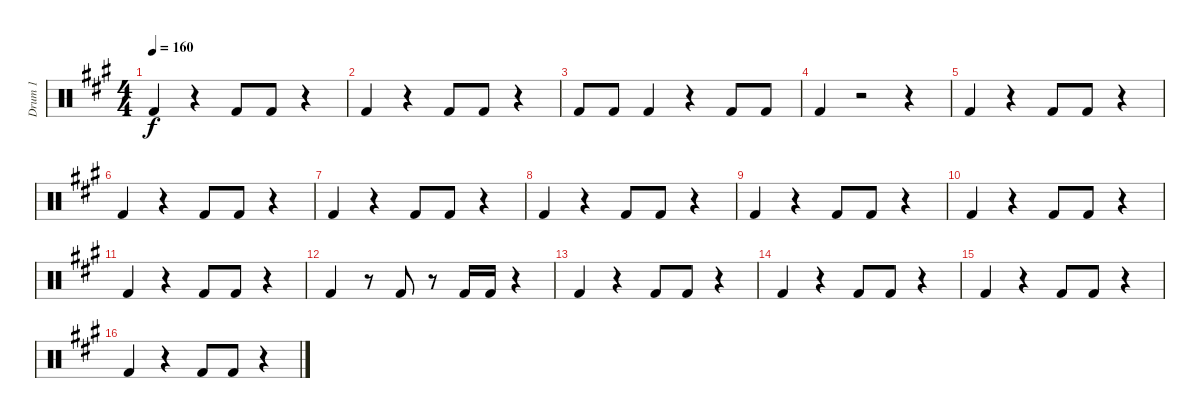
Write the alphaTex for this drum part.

\track ("Drum 1" "Drum 1") {instrument percussion}
\staff {score}
\articulation defaults
\ts (4 4)
\tempo 160
\clef neutral
\ks a "Kick (hit) 2".4{dy f}
r.4 "Kick (hit) 2".8 "Kick (hit) 2".8 r.4 |
"Kick (hit) 2".4 r.4 "Kick (hit) 2".8 "Kick (hit) 2".8 r.4 |
"Kick (hit) 2".8 "Kick (hit) 2".8 "Kick (hit) 2".4 r.4 "Kick (hit) 2".8 "Kick (hit) 2".8 |
"Kick (hit) 2".4 r.2 r.4 |
"Kick (hit) 2".4 r.4 "Kick (hit) 2".8 "Kick (hit) 2".8 r.4 |
"Kick (hit) 2".4 r.4 "Kick (hit) 2".8 "Kick (hit) 2".8 r.4 |
"Kick (hit) 2".4 r.4 "Kick (hit) 2".8 "Kick (hit) 2".8 r.4 |
"Kick (hit) 2".4 r.4 "Kick (hit) 2".8 "Kick (hit) 2".8 r.4 |
"Kick (hit) 2".4 r.4 "Kick (hit) 2".8 "Kick (hit) 2".8 r.4 |
"Kick (hit) 2".4 r.4 "Kick (hit) 2".8 "Kick (hit) 2".8 r.4 |
"Kick (hit) 2".4 r.4 "Kick (hit) 2".8 "Kick (hit) 2".8 r.4 |
"Kick (hit) 2".4 r.8 "Kick (hit) 2".8 r.8 "Kick (hit) 2".16 "Kick (hit) 2".16 r.4 |
"Kick (hit) 2".4 r.4 "Kick (hit) 2".8 "Kick (hit) 2".8 r.4 |
"Kick (hit) 2".4 r.4 "Kick (hit) 2".8 "Kick (hit) 2".8 r.4 |
"Kick (hit) 2".4 r.4 "Kick (hit) 2".8 "Kick (hit) 2".8 r.4 |
"Kick (hit) 2".4 r.4 "Kick (hit) 2".8 "Kick (hit) 2".8 r.4
